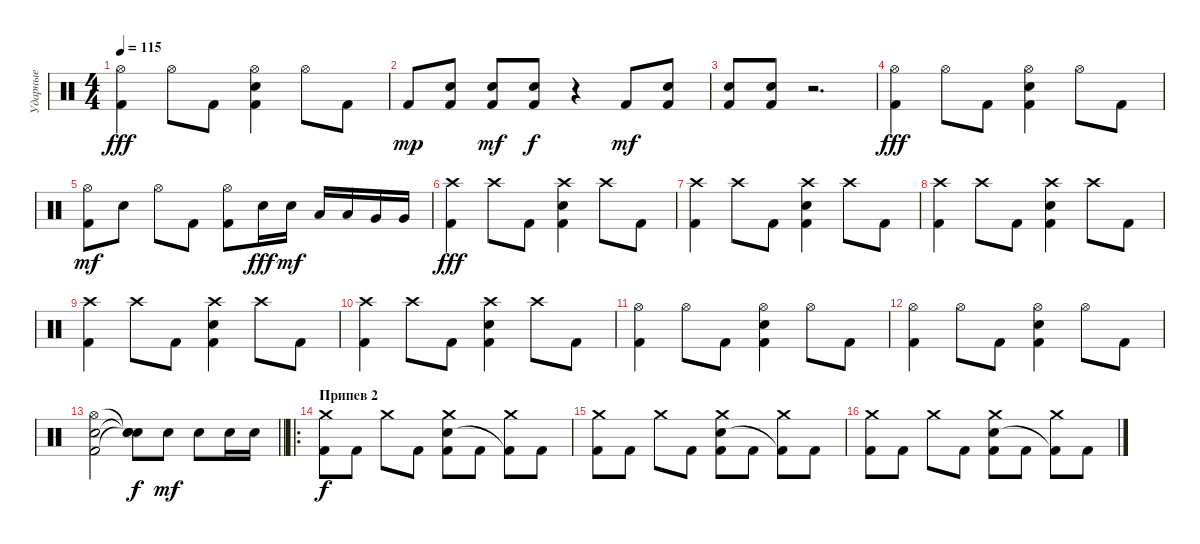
\track ("Ударные" "Ударные") {instrument percussion}
\staff {score}
\articulation defaults
\ts (4 4)
\tempo 115
\clef neutral
\ks c
("Hi-Hat (open)" "Kick (hit) 2").4{dy fff} "Hi-Hat (open)".8 "Kick (hit) 2".8 ("Hi-Hat (open)" "Snare (hit) 2" "Kick (hit) 2").4 "Hi-Hat (open)".8 "Kick (hit) 2".8 |
"Kick (hit) 2".8{dy mp} ("Snare (hit) 2" "Kick (hit) 2").8 ("Snare (hit) 2" "Kick (hit) 2").8{dy mf} ("Snare (hit) 2" "Kick (hit) 2").8{dy f} r.4 "Kick (hit) 2".8{dy mf} ("Snare (hit) 2" "Kick (hit) 2").8 |
("Snare (hit) 2" "Kick (hit) 2").8 ("Snare (hit) 2" "Kick (hit) 2").8 r.2{d} |
("Hi-Hat (open)" "Kick (hit) 2").4{dy fff} "Hi-Hat (open)".8 "Kick (hit) 2".8 ("Hi-Hat (open)" "Snare (hit) 2" "Kick (hit) 2").4 "Hi-Hat (open)".8 "Kick (hit) 2".8 |
("Hi-Hat (open)" "Kick (hit) 2").8{dy mf} "Snare (hit) 2".8 "Hi-Hat (open)".8 "Kick (hit) 2".8 ("Hi-Hat (open)" "Kick (hit) 2").8 "Snare (hit) 2".16{dy fff} "Snare (hit) 2".16{dy mf} "Low Tom (hit)".16 "Low Tom (hit)".16 "Very Low Tom (hit)".16 "Very Low Tom (hit)".16 |
("Crash high (hit)" "Kick (hit) 2").4{dy fff} "Crash high (hit)".8 "Kick (hit) 2".8 ("Crash high (hit)" "Snare (hit) 2" "Kick (hit) 2").4 "Crash high (hit)".8 "Kick (hit) 2".8 |
("Crash high (hit)" "Kick (hit) 2").4 "Crash high (hit)".8 "Kick (hit) 2".8 ("Crash high (hit)" "Snare (hit) 2" "Kick (hit) 2").4 "Crash high (hit)".8 "Kick (hit) 2".8 |
("Crash high (hit)" "Kick (hit) 2").4 "Crash high (hit)".8 "Kick (hit) 2".8 ("Crash high (hit)" "Snare (hit) 2" "Kick (hit) 2").4 "Crash high (hit)".8 "Kick (hit) 2".8 |
("Crash high (hit)" "Kick (hit) 2").4 "Crash high (hit)".8 "Kick (hit) 2".8 ("Crash high (hit)" "Snare (hit) 2" "Kick (hit) 2").4 "Crash high (hit)".8 "Kick (hit) 2".8 |
("Crash high (hit)" "Kick (hit) 2").4 "Crash high (hit)".8 "Kick (hit) 2".8 ("Crash high (hit)" "Snare (hit) 2" "Kick (hit) 2").4 "Crash high (hit)".8 "Kick (hit) 2".8 |
("Hi-Hat (open)" "Kick (hit) 2").4 "Hi-Hat (open)".8 "Kick (hit) 2".8 ("Hi-Hat (open)" "Snare (hit) 2" "Kick (hit) 2").4 "Hi-Hat (open)".8 "Kick (hit) 2".8 |
("Hi-Hat (open)" "Kick (hit) 2").4 "Hi-Hat (open)".8 "Kick (hit) 2".8 ("Hi-Hat (open)" "Snare (hit) 2" "Kick (hit) 2").4 "Hi-Hat (open)".8 "Kick (hit) 2".8 |
\barLineRight lightlight
("Hi-Hat (open)" "Snare (hit) 2" "Kick (hit) 2").2 ("Snare (hit)"{t} "Snare (hit)"{t} "Snare (hit)"{t}).8{dy f} "Snare (hit) 2".8{dy mf} "Snare (hit) 2".8 "Snare (hit) 2".16 "Snare (hit) 2".16 |
\ro
\section ("" "Припев 2")
("Crash medium (hit)" "Kick (hit) 2").8{dy f} "Kick (hit) 2".8 "Crash medium (hit)".8 "Kick (hit) 2".8 ("Crash medium (hit)" "Snare (hit) 2" "Kick (hit) 2").8 "Kick (hit) 2".8 ("Crash medium (hit)" "Kick (hit) 2"{t}).8 "Kick (hit) 2".8 |
("Crash medium (hit)" "Kick (hit) 2").8 "Kick (hit) 2".8 "Crash medium (hit)".8 "Kick (hit) 2".8 ("Crash medium (hit)" "Snare (hit) 2" "Kick (hit) 2").8 "Kick (hit) 2".8 ("Crash medium (hit)" "Kick (hit) 2"{t}).8 "Kick (hit) 2".8 |
("Crash medium (hit)" "Kick (hit) 2").8 "Kick (hit) 2".8 "Crash medium (hit)".8 "Kick (hit) 2".8 ("Crash medium (hit)" "Snare (hit) 2" "Kick (hit) 2").8 "Kick (hit) 2".8 ("Crash medium (hit)" "Kick (hit) 2"{t}).8 "Kick (hit) 2".8
